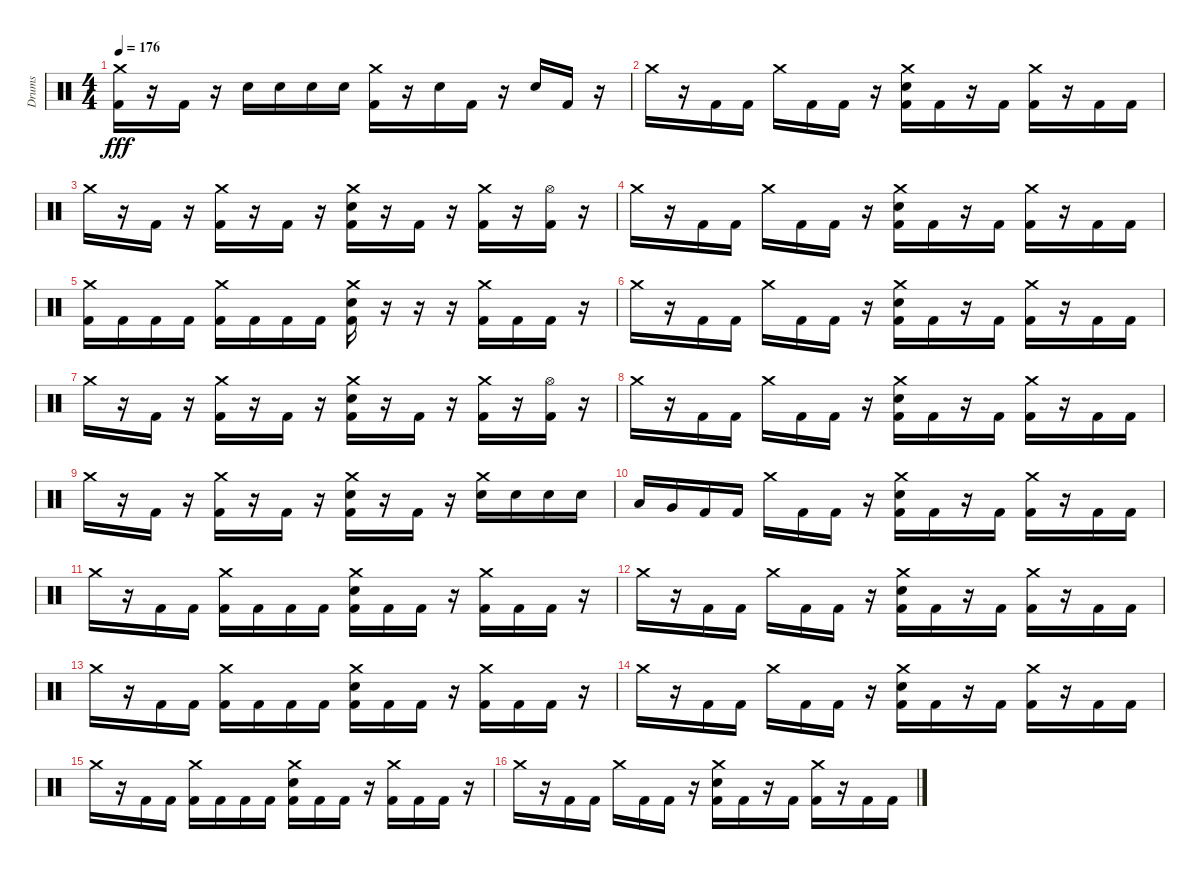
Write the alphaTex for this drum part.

\track ("Drums" "Drums") {instrument percussion}
\staff {score}
\articulation defaults
\ts (4 4)
\tempo 176
\clef neutral
\ks c
("Crash medium (hit)" "Kick (hit) 2").16{dy fff} r.16 "Kick (hit) 2".16 r.16 "Electric Snare (hit)".16 "Electric Snare (hit)".16 "Electric Snare (hit)".16 "Electric Snare (hit)".16 ("Crash medium (hit)" "Kick (hit) 2").16 r.16 "Electric Snare (hit)".16 "Kick (hit) 2".16 r.16 "Electric Snare (hit)".16 "Kick (hit) 2".16 r.16 |
"Crash medium (hit)".16 r.16 "Kick (hit) 2".16 "Kick (hit) 2".16 "Crash medium (hit)".16 "Kick (hit) 2".16 "Kick (hit) 2".16 r.16 ("Crash medium (hit)" "Kick (hit) 2" "Electric Snare (hit)").16 "Kick (hit) 2".16 r.16 "Kick (hit) 2".16 ("Crash medium (hit)" "Kick (hit) 2").16 r.16 "Kick (hit) 2".16 "Kick (hit) 2".16 |
"Crash medium (hit)".16 r.16 "Kick (hit) 2".16 r.16 ("Kick (hit) 2" "Crash medium (hit)").16 r.16 "Kick (hit) 2".16 r.16 ("Kick (hit) 2" "Crash medium (hit)" "Electric Snare (hit)").16 r.16 "Kick (hit) 2".16 r.16 ("Kick (hit) 2" "Crash medium (hit)").16 r.16 ("Kick (hit) 2" "Hi-Hat (open)").16 r.16 |
"Crash medium (hit)".16 r.16 "Kick (hit) 2".16 "Kick (hit) 2".16 "Crash medium (hit)".16 "Kick (hit) 2".16 "Kick (hit) 2".16 r.16 ("Crash medium (hit)" "Kick (hit) 2" "Electric Snare (hit)").16 "Kick (hit) 2".16 r.16 "Kick (hit) 2".16 ("Crash medium (hit)" "Kick (hit) 2").16 r.16 "Kick (hit) 2".16 "Kick (hit) 2".16 |
("Kick (hit) 2" "Crash medium (hit)").16 "Kick (hit) 2".16 "Kick (hit) 2".16 "Kick (hit) 2".16 ("Kick (hit) 2" "Crash medium (hit)").16 "Kick (hit) 2".16 "Kick (hit) 2".16 "Kick (hit) 2".16 ("Kick (hit) 2" "Crash medium (hit)" "Electric Snare (hit)").16 r.16 r.16 r.16 ("Kick (hit) 2" "Crash medium (hit)").16 "Kick (hit) 2".16 "Kick (hit) 2".16 r.16 |
"Crash medium (hit)".16 r.16 "Kick (hit) 2".16 "Kick (hit) 2".16 "Crash medium (hit)".16 "Kick (hit) 2".16 "Kick (hit) 2".16 r.16 ("Crash medium (hit)" "Kick (hit) 2" "Electric Snare (hit)").16 "Kick (hit) 2".16 r.16 "Kick (hit) 2".16 ("Crash medium (hit)" "Kick (hit) 2").16 r.16 "Kick (hit) 2".16 "Kick (hit) 2".16 |
"Crash medium (hit)".16 r.16 "Kick (hit) 2".16 r.16 ("Kick (hit) 2" "Crash medium (hit)").16 r.16 "Kick (hit) 2".16 r.16 ("Kick (hit) 2" "Crash medium (hit)" "Electric Snare (hit)").16 r.16 "Kick (hit) 2".16 r.16 ("Kick (hit) 2" "Crash medium (hit)").16 r.16 ("Kick (hit) 2" "Hi-Hat (open)").16 r.16 |
"Crash medium (hit)".16 r.16 "Kick (hit) 2".16 "Kick (hit) 2".16 "Crash medium (hit)".16 "Kick (hit) 2".16 "Kick (hit) 2".16 r.16 ("Crash medium (hit)" "Kick (hit) 2" "Electric Snare (hit)").16 "Kick (hit) 2".16 r.16 "Kick (hit) 2".16 ("Crash medium (hit)" "Kick (hit) 2").16 r.16 "Kick (hit) 2".16 "Kick (hit) 2".16 |
"Crash medium (hit)".16 r.16 "Kick (hit) 2".16 r.16 ("Crash medium (hit)" "Kick (hit) 2").16 r.16 "Kick (hit) 2".16 r.16 ("Crash medium (hit)" "Kick (hit) 2" "Electric Snare (hit)").16 r.16 "Kick (hit) 2".16 r.16 ("Crash medium (hit)" "Snare (hit) 2").16 "Snare (hit) 2".16 "Snare (hit) 2".16 "Snare (hit) 2".16 |
"Low Tom (hit)".16 "Very Low Tom (hit)".16 "Kick (hit) 2".16 "Kick (hit) 2".16 "Crash medium (hit)".16 "Kick (hit) 2".16 "Kick (hit) 2".16 r.16 ("Kick (hit) 2" "Crash medium (hit)" "Electric Snare (hit)").16 "Kick (hit) 2".16 r.16 "Kick (hit) 2".16 ("Kick (hit) 2" "Crash medium (hit)").16 r.16 "Kick (hit) 2".16 "Kick (hit) 2".16 |
"Crash medium (hit)".16 r.16 "Kick (hit) 2".16 "Kick (hit) 2".16 ("Crash medium (hit)" "Kick (hit) 2").16 "Kick (hit) 2".16 "Kick (hit) 2".16 "Kick (hit) 2".16 ("Crash medium (hit)" "Kick (hit) 2" "Electric Snare (hit)").16 "Kick (hit) 2".16 "Kick (hit) 2".16 r.16 ("Crash medium (hit)" "Kick (hit) 2").16 "Kick (hit) 2".16 "Kick (hit) 2".16 r.16 |
"Crash medium (hit)".16 r.16 "Kick (hit) 2".16 "Kick (hit) 2".16 "Crash medium (hit)".16 "Kick (hit) 2".16 "Kick (hit) 2".16 r.16 ("Crash medium (hit)" "Kick (hit) 2" "Electric Snare (hit)").16 "Kick (hit) 2".16 r.16 "Kick (hit) 2".16 ("Crash medium (hit)" "Kick (hit) 2").16 r.16 "Kick (hit) 2".16 "Kick (hit) 2".16 |
"Crash medium (hit)".16 r.16 "Kick (hit) 2".16 "Kick (hit) 2".16 ("Crash medium (hit)" "Kick (hit) 2").16 "Kick (hit) 2".16 "Kick (hit) 2".16 "Kick (hit) 2".16 ("Crash medium (hit)" "Kick (hit) 2" "Electric Snare (hit)").16 "Kick (hit) 2".16 "Kick (hit) 2".16 r.16 ("Crash medium (hit)" "Kick (hit) 2").16 "Kick (hit) 2".16 "Kick (hit) 2".16 r.16 |
"Crash medium (hit)".16 r.16 "Kick (hit) 2".16 "Kick (hit) 2".16 "Crash medium (hit)".16 "Kick (hit) 2".16 "Kick (hit) 2".16 r.16 ("Crash medium (hit)" "Kick (hit) 2" "Electric Snare (hit)").16 "Kick (hit) 2".16 r.16 "Kick (hit) 2".16 ("Crash medium (hit)" "Kick (hit) 2").16 r.16 "Kick (hit) 2".16 "Kick (hit) 2".16 |
"Crash medium (hit)".16 r.16 "Kick (hit) 2".16 "Kick (hit) 2".16 ("Crash medium (hit)" "Kick (hit) 2").16 "Kick (hit) 2".16 "Kick (hit) 2".16 "Kick (hit) 2".16 ("Crash medium (hit)" "Kick (hit) 2" "Electric Snare (hit)").16 "Kick (hit) 2".16 "Kick (hit) 2".16 r.16 ("Crash medium (hit)" "Kick (hit) 2").16 "Kick (hit) 2".16 "Kick (hit) 2".16 r.16 |
"Crash medium (hit)".16 r.16 "Kick (hit) 2".16 "Kick (hit) 2".16 "Crash medium (hit)".16 "Kick (hit) 2".16 "Kick (hit) 2".16 r.16 ("Crash medium (hit)" "Kick (hit) 2" "Electric Snare (hit)").16 "Kick (hit) 2".16 r.16 "Kick (hit) 2".16 ("Crash medium (hit)" "Kick (hit) 2").16 r.16 "Kick (hit) 2".16 "Kick (hit) 2".16
